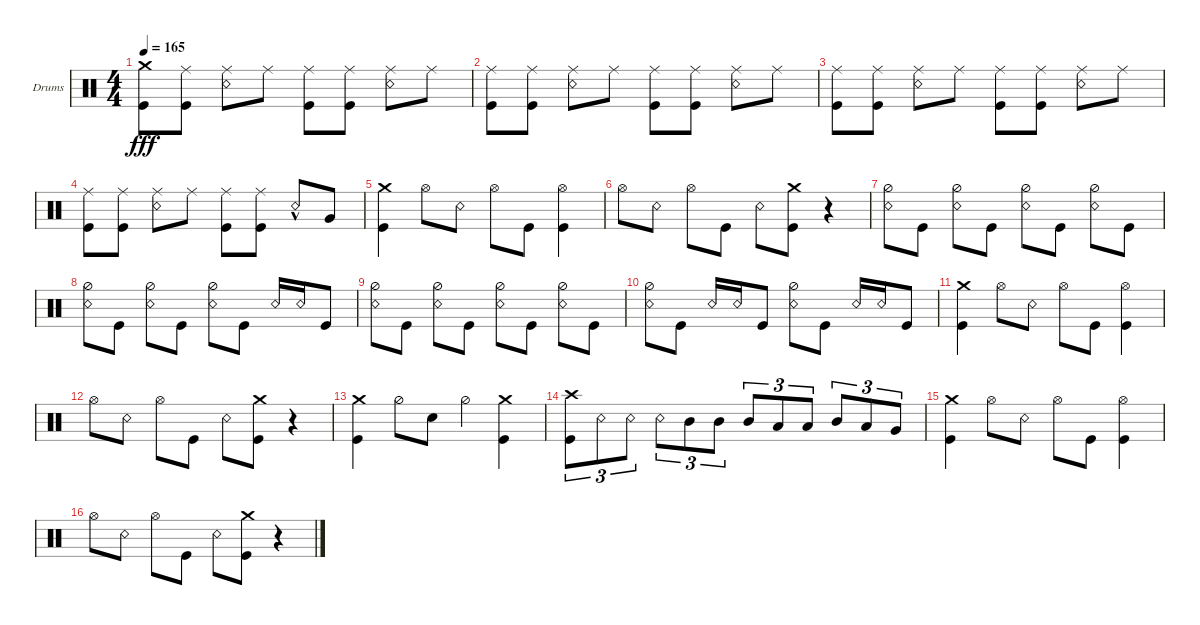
\defaultSystemsLayout 4
\bracketExtendMode groupsimilarinstruments
\firstSystemTrackNameOrientation horizontal
\otherSystemsTrackNameOrientation horizontal
\track ("Drums" "Drums") {instrument percussion}
\staff {score}
\articulation defaults
\ts (4 4)
\tempo 165
\clef neutral
\ks c
("Crash medium (hit)" "Kick (hit)").8{dy fff} ("Ride (middle)" "Kick (hit)").8 ("Ride (middle)" "Snare (rim shot)").8 "Ride (middle)".8 ("Ride (middle)" "Kick (hit)").8 ("Ride (middle)" "Kick (hit)").8 ("Ride (middle)" "Snare (rim shot)").8 "Ride (middle)".8 |
("Ride (middle)" "Kick (hit)").8 ("Ride (middle)" "Kick (hit)").8 ("Ride (middle)" "Snare (rim shot)").8 "Ride (middle)".8 ("Ride (middle)" "Kick (hit)").8 ("Ride (middle)" "Kick (hit)").8 ("Ride (middle)" "Snare (rim shot)").8 "Ride (middle)".8 |
("Ride (middle)" "Kick (hit)").8 ("Ride (middle)" "Kick (hit)").8 ("Ride (middle)" "Snare (rim shot)").8 "Ride (middle)".8 ("Ride (middle)" "Kick (hit)").8 ("Ride (middle)" "Kick (hit)").8 ("Ride (middle)" "Snare (rim shot)").8 "Ride (middle)".8 |
("Ride (middle)" "Kick (hit)").8 ("Ride (middle)" "Kick (hit)").8 ("Ride (middle)" "Snare (rim shot)").8 "Ride (middle)".8 ("Ride (middle)" "Kick (hit)").8 ("Ride (middle)" "Kick (hit)").8 "Snare (rim shot)"{hac}.8 "Very Low Tom (hit)".8 |
("Kick (hit)" "Crash medium (hit)").4 "Hi-Hat (open)".8 "Snare (rim shot)".8 "Hi-Hat (open)".8 "Kick (hit)".8 ("Kick (hit)" "Hi-Hat (open)").4 |
"Hi-Hat (open)".8 "Snare (rim shot)".8 "Hi-Hat (open)".8 "Kick (hit)".8 "Snare (rim shot)".8 ("Crash medium (hit)" "Kick (hit)").8 r.4 |
("Hi-Hat (half)" "Snare (rim shot)").8 "Kick (hit)".8 ("Hi-Hat (half)" "Snare (rim shot)").8 "Kick (hit)".8 ("Hi-Hat (half)" "Snare (rim shot)").8 "Kick (hit)".8 ("Hi-Hat (half)" "Snare (rim shot)").8 "Kick (hit)".8 |
("Hi-Hat (half)" "Snare (rim shot)").8 "Kick (hit)".8 ("Hi-Hat (half)" "Snare (rim shot)").8 "Kick (hit)".8 ("Hi-Hat (half)" "Snare (rim shot)").8 "Kick (hit)".8 "Snare (rim shot)".16 "Snare (rim shot)".16 "Kick (hit)".8 |
("Hi-Hat (half)" "Snare (rim shot)").8 "Kick (hit)".8 ("Hi-Hat (half)" "Snare (rim shot)").8 "Kick (hit)".8 ("Hi-Hat (half)" "Snare (rim shot)").8 "Kick (hit)".8 ("Hi-Hat (half)" "Snare (rim shot)").8 "Kick (hit)".8 |
("Hi-Hat (half)" "Snare (rim shot)").8 "Kick (hit)".8 "Snare (rim shot)".16 "Snare (rim shot)".16 "Kick (hit)".8 ("Hi-Hat (half)" "Snare (rim shot)").8 "Kick (hit)".8 "Snare (rim shot)".16 "Snare (rim shot)".16 "Kick (hit)".8 |
("Kick (hit)" "Crash medium (hit)").4 "Hi-Hat (open)".8 "Snare (rim shot)".8 "Hi-Hat (open)".8 "Kick (hit)".8 ("Kick (hit)" "Hi-Hat (open)").4 |
"Hi-Hat (open)".8 "Snare (rim shot)".8 "Hi-Hat (open)".8 "Kick (hit)".8 "Snare (rim shot)".8 ("Crash medium (hit)" "Kick (hit)").8 r.4 |
("Kick (hit)" "Crash medium (hit)").4 "Hi-Hat (half)".8 "Snare (hit) 2".8 "Hi-Hat (half)".4 ("Kick (hit)" "Crash medium (hit)").4 |
("Crash high (hit)" "Kick (hit)").8{tu (3 2)} "Snare (rim shot)".8{tu (3 2)} "Snare (rim shot)".8{tu (3 2)} "Snare (rim shot)".8{tu (3 2)} "Mid Tom (hit)".8{tu (3 2)} "Mid Tom (hit)".8{tu (3 2)} "Mid Tom (hit)".8{tu (3 2)} "Low Tom (hit)".8{tu (3 2)} "Low Tom (hit)".8{tu (3 2)} "Mid Tom (hit)".8{tu (3 2)} "Low Tom (hit)".8{tu (3 2)} "Very Low Tom (hit)".8{tu (3 2)} |
("Kick (hit)" "Crash medium (hit)").4 "Hi-Hat (open)".8 "Snare (rim shot)".8 "Hi-Hat (open)".8 "Kick (hit)".8 ("Kick (hit)" "Hi-Hat (open)").4 |
"Hi-Hat (open)".8 "Snare (rim shot)".8 "Hi-Hat (open)".8 "Kick (hit)".8 "Snare (rim shot)".8 ("Crash medium (hit)" "Kick (hit)").8 r.4
